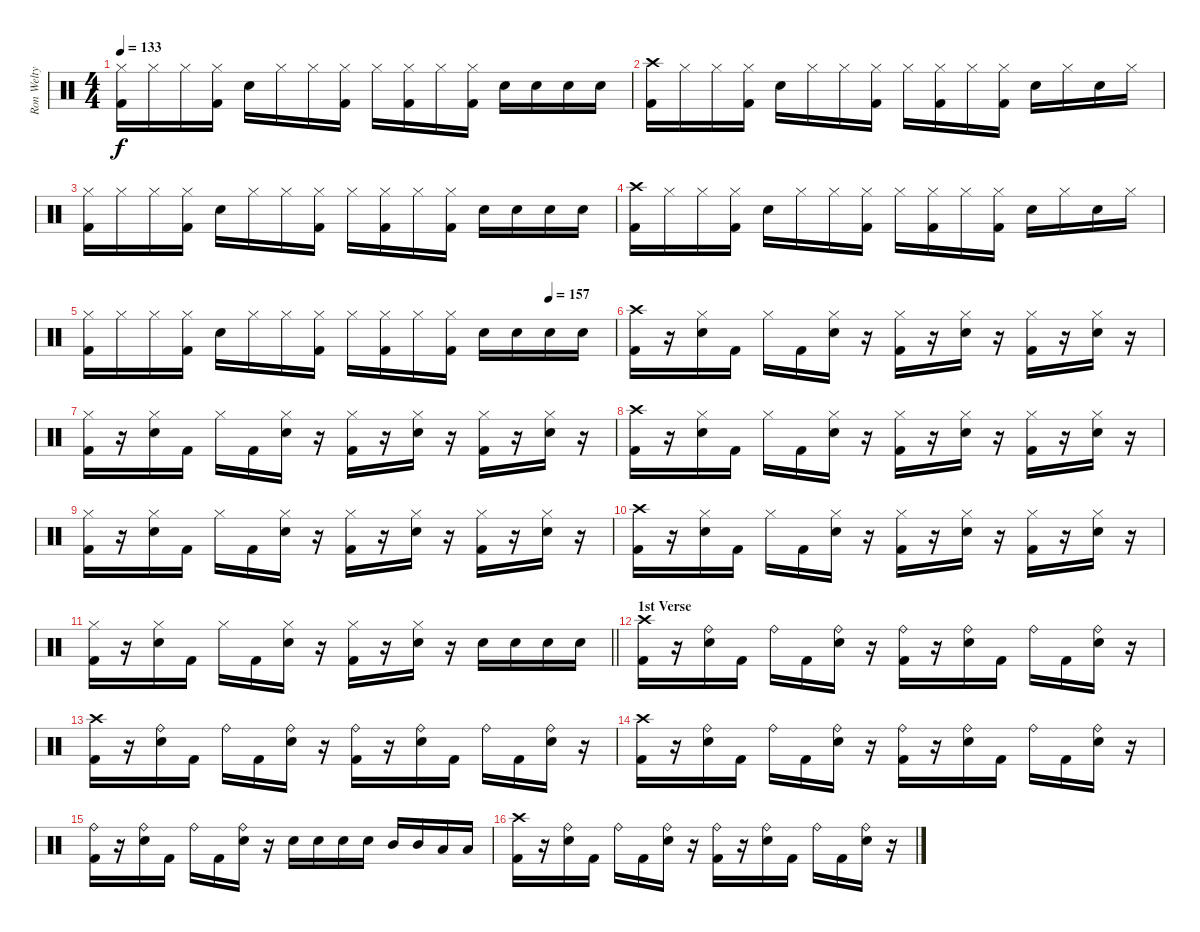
\track ("Ron Welty - Drums" "Ron Welty ") {instrument percussion}
\staff {score}
\articulation defaults
\ts (4 4)
\tempo 133
\clef neutral
\ks c
("Hi-Hat (closed)" "Kick (hit) 2").16{dy f} "Hi-Hat (closed)".16 "Hi-Hat (closed)".16 ("Hi-Hat (closed)" "Kick (hit) 2").16 "Snare (hit) 2".16 "Hi-Hat (closed)".16 "Hi-Hat (closed)".16 ("Hi-Hat (closed)" "Kick (hit) 2").16 "Hi-Hat (closed)".16 ("Hi-Hat (closed)" "Kick (hit) 2").16 "Hi-Hat (closed)".16 ("Hi-Hat (closed)" "Kick (hit) 2").16 "Snare (hit) 2".16 "Snare (hit) 2".16 "Snare (hit) 2".16 "Snare (hit) 2".16 |
("Crash high (hit)" "Kick (hit) 2").16 "Hi-Hat (closed)".16 "Hi-Hat (closed)".16 ("Hi-Hat (closed)" "Kick (hit) 2").16 "Snare (hit) 2".16 "Hi-Hat (closed)".16 "Hi-Hat (closed)".16 ("Hi-Hat (closed)" "Kick (hit) 2").16 "Hi-Hat (closed)".16 ("Hi-Hat (closed)" "Kick (hit) 2").16 "Hi-Hat (closed)".16 ("Hi-Hat (closed)" "Kick (hit) 2").16 "Snare (hit) 2".16 "Hi-Hat (closed)".16 "Snare (hit) 2".16 "Hi-Hat (closed)".16 |
("Hi-Hat (closed)" "Kick (hit) 2").16 "Hi-Hat (closed)".16 "Hi-Hat (closed)".16 ("Hi-Hat (closed)" "Kick (hit) 2").16 "Snare (hit) 2".16 "Hi-Hat (closed)".16 "Hi-Hat (closed)".16 ("Hi-Hat (closed)" "Kick (hit) 2").16 "Hi-Hat (closed)".16 ("Hi-Hat (closed)" "Kick (hit) 2").16 "Hi-Hat (closed)".16 ("Hi-Hat (closed)" "Kick (hit) 2").16 "Snare (hit) 2".16 "Snare (hit) 2".16 "Snare (hit) 2".16 "Snare (hit) 2".16 |
("Crash high (hit)" "Kick (hit) 2").16 "Hi-Hat (closed)".16 "Hi-Hat (closed)".16 ("Hi-Hat (closed)" "Kick (hit) 2").16 "Snare (hit) 2".16 "Hi-Hat (closed)".16 "Hi-Hat (closed)".16 ("Hi-Hat (closed)" "Kick (hit) 2").16 "Hi-Hat (closed)".16 ("Hi-Hat (closed)" "Kick (hit) 2").16 "Hi-Hat (closed)".16 ("Hi-Hat (closed)" "Kick (hit) 2").16 "Snare (hit) 2".16 "Hi-Hat (closed)".16 "Snare (hit) 2".16 "Hi-Hat (closed)".16 |
\tempo (157 0.875)
("Hi-Hat (closed)" "Kick (hit) 2").16 "Hi-Hat (closed)".16 "Hi-Hat (closed)".16 ("Hi-Hat (closed)" "Kick (hit) 2").16 "Snare (hit) 2".16 "Hi-Hat (closed)".16 "Hi-Hat (closed)".16 ("Hi-Hat (closed)" "Kick (hit) 2").16 "Hi-Hat (closed)".16 ("Hi-Hat (closed)" "Kick (hit) 2").16 "Hi-Hat (closed)".16 ("Hi-Hat (closed)" "Kick (hit) 2").16 "Snare (hit) 2".16 "Snare (hit) 2".16 "Snare (hit) 2".16 "Snare (hit) 2".16 |
("Crash high (hit)" "Kick (hit) 2").16 r.16 ("Hi-Hat (closed)" "Snare (hit) 2").16 "Kick (hit) 2".16 "Hi-Hat (closed)".16 "Kick (hit) 2".16 ("Hi-Hat (closed)" "Snare (hit) 2").16 r.16 ("Hi-Hat (closed)" "Kick (hit) 2").16 r.16 ("Hi-Hat (closed)" "Snare (hit) 2").16 r.16 ("Hi-Hat (closed)" "Kick (hit) 2").16 r.16 ("Hi-Hat (closed)" "Snare (hit) 2").16 r.16 |
("Hi-Hat (closed)" "Kick (hit) 2").16 r.16 ("Hi-Hat (closed)" "Snare (hit) 2").16 "Kick (hit) 2".16 "Hi-Hat (closed)".16 "Kick (hit) 2".16 ("Hi-Hat (closed)" "Snare (hit) 2").16 r.16 ("Hi-Hat (closed)" "Kick (hit) 2").16 r.16 ("Hi-Hat (closed)" "Snare (hit) 2").16 r.16 ("Hi-Hat (closed)" "Kick (hit) 2").16 r.16 ("Hi-Hat (closed)" "Snare (hit) 2").16 r.16 |
("Crash high (hit)" "Kick (hit) 2").16 r.16 ("Hi-Hat (closed)" "Snare (hit) 2").16 "Kick (hit) 2".16 "Hi-Hat (closed)".16 "Kick (hit) 2".16 ("Hi-Hat (closed)" "Snare (hit) 2").16 r.16 ("Hi-Hat (closed)" "Kick (hit) 2").16 r.16 ("Hi-Hat (closed)" "Snare (hit) 2").16 r.16 ("Hi-Hat (closed)" "Kick (hit) 2").16 r.16 ("Hi-Hat (closed)" "Snare (hit) 2").16 r.16 |
("Hi-Hat (closed)" "Kick (hit) 2").16 r.16 ("Hi-Hat (closed)" "Snare (hit) 2").16 "Kick (hit) 2".16 "Hi-Hat (closed)".16 "Kick (hit) 2".16 ("Hi-Hat (closed)" "Snare (hit) 2").16 r.16 ("Hi-Hat (closed)" "Kick (hit) 2").16 r.16 ("Hi-Hat (closed)" "Snare (hit) 2").16 r.16 ("Hi-Hat (closed)" "Kick (hit) 2").16 r.16 ("Hi-Hat (closed)" "Snare (hit) 2").16 r.16 |
("Crash high (hit)" "Kick (hit) 2").16 r.16 ("Hi-Hat (closed)" "Snare (hit) 2").16 "Kick (hit) 2".16 "Hi-Hat (closed)".16 "Kick (hit) 2".16 ("Hi-Hat (closed)" "Snare (hit) 2").16 r.16 ("Hi-Hat (closed)" "Kick (hit) 2").16 r.16 ("Hi-Hat (closed)" "Snare (hit) 2").16 r.16 ("Hi-Hat (closed)" "Kick (hit) 2").16 r.16 ("Hi-Hat (closed)" "Snare (hit) 2").16 r.16 |
\barLineRight lightlight
("Hi-Hat (closed)" "Kick (hit) 2").16 r.16 ("Hi-Hat (closed)" "Snare (hit) 2").16 "Kick (hit) 2".16 "Hi-Hat (closed)".16 "Kick (hit) 2".16 ("Hi-Hat (closed)" "Snare (hit) 2").16 r.16 ("Hi-Hat (closed)" "Kick (hit) 2").16 r.16 ("Hi-Hat (closed)" "Snare (hit) 2").16 r.16 "Snare (hit) 2".16 "Snare (hit) 2".16 "Snare (hit) 2".16 "Snare (hit) 2".16 |
\section ("" "1st Verse")
("Crash high (hit)" "Kick (hit) 2").16 r.16 ("Ride (bell)" "Snare (hit) 2").16 "Kick (hit) 2".16 "Ride (bell)".16 "Kick (hit) 2".16 ("Ride (bell)" "Snare (hit) 2").16 r.16 ("Ride (bell)" "Kick (hit) 2").16 r.16 ("Ride (bell)" "Snare (hit) 2").16 "Kick (hit) 2".16 "Ride (bell)".16 "Kick (hit) 2".16 ("Ride (bell)" "Snare (hit) 2").16 r.16 |
("Crash high (hit)" "Kick (hit) 2").16 r.16 ("Ride (bell)" "Snare (hit) 2").16 "Kick (hit) 2".16 "Ride (bell)".16 "Kick (hit) 2".16 ("Ride (bell)" "Snare (hit) 2").16 r.16 ("Ride (bell)" "Kick (hit) 2").16 r.16 ("Ride (bell)" "Snare (hit) 2").16 "Kick (hit) 2".16 "Ride (bell)".16 "Kick (hit) 2".16 ("Ride (bell)" "Snare (hit) 2").16 r.16 |
("Crash high (hit)" "Kick (hit) 2").16 r.16 ("Ride (bell)" "Snare (hit) 2").16 "Kick (hit) 2".16 "Ride (bell)".16 "Kick (hit) 2".16 ("Ride (bell)" "Snare (hit) 2").16 r.16 ("Ride (bell)" "Kick (hit) 2").16 r.16 ("Ride (bell)" "Snare (hit) 2").16 "Kick (hit) 2".16 "Ride (bell)".16 "Kick (hit) 2".16 ("Ride (bell)" "Snare (hit) 2").16 r.16 |
("Ride (bell)" "Kick (hit) 2").16 r.16 ("Ride (bell)" "Snare (hit) 2").16 "Kick (hit) 2".16 "Ride (bell)".16 "Kick (hit) 2".16 ("Ride (bell)" "Snare (hit) 2").16 r.16 "Snare (hit) 2".16 "Snare (hit) 2".16 "Snare (hit) 2".16 "Snare (hit) 2".16 "Mid Tom (hit)".16 "Mid Tom (hit)".16 "Low Tom (hit)".16 "Low Tom (hit)".16 |
("Crash high (hit)" "Kick (hit) 2").16 r.16 ("Ride (bell)" "Snare (hit) 2").16 "Kick (hit) 2".16 "Ride (bell)".16 "Kick (hit) 2".16 ("Ride (bell)" "Snare (hit) 2").16 r.16 ("Ride (bell)" "Kick (hit) 2").16 r.16 ("Ride (bell)" "Snare (hit) 2").16 "Kick (hit) 2".16 "Ride (bell)".16 "Kick (hit) 2".16 ("Ride (bell)" "Snare (hit) 2").16 r.16
